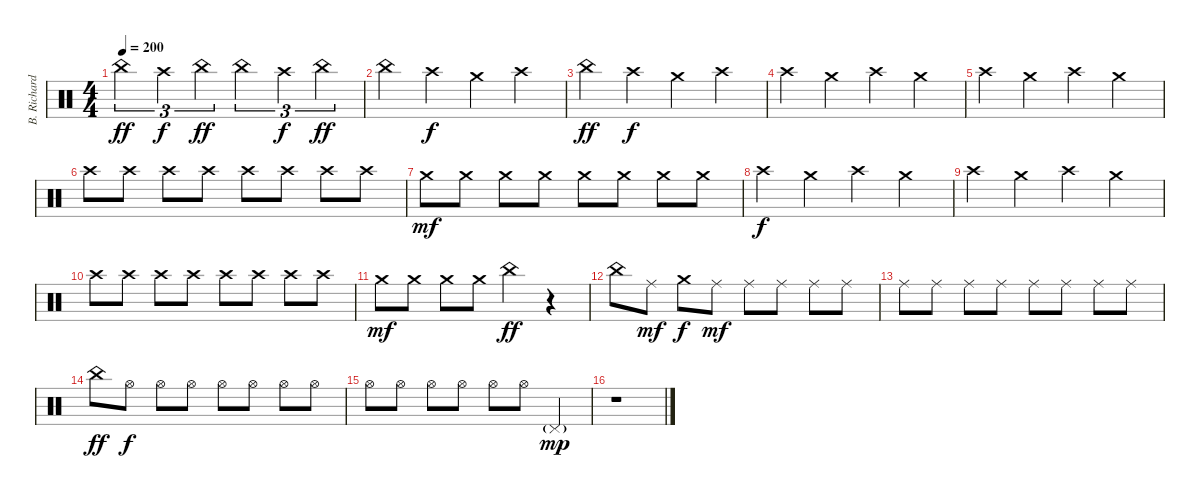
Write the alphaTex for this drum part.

\track ("B. Richardson Drums" "B. Richard") {instrument percussion}
\staff {score}
\articulation defaults
\ts (4 4)
\tempo 200
\clef neutral
\ks c "China (hit)".4{tu (3 2) dy ff} "Crash high (hit)".4{tu (3 2) dy f} "China (hit)".4{tu (3 2) dy ff} "China (hit)".4{tu (3 2)} "Crash high (hit)".4{tu (3 2) dy f} "China (hit)".4{tu (3 2) dy ff}
|
"China (hit)".4 "Crash high (hit)".4{dy f} "Crash medium (hit)".4 "Crash high (hit)".4 |
"China (hit)".4{dy ff} "Crash high (hit)".4{dy f} "Crash medium (hit)".4 "Crash high (hit)".4 |
"Crash high (hit)".4 "Crash medium (hit)".4 "Crash high (hit)".4 "Crash medium (hit)".4 |
"Crash high (hit)".4 "Crash medium (hit)".4 "Crash high (hit)".4 "Crash medium (hit)".4 |
"Crash high (hit)".8 "Crash high (hit)".8 "Crash high (hit)".8 "Crash high (hit)".8 "Crash high (hit)".8 "Crash high (hit)".8 "Crash high (hit)".8 "Crash high (hit)".8 |
"Crash medium (hit)".8{dy mf} "Crash medium (hit)".8 "Crash medium (hit)".8 "Crash medium (hit)".8 "Crash medium (hit)".8 "Crash medium (hit)".8 "Crash medium (hit)".8 "Crash medium (hit)".8 |
"Crash high (hit)".4{dy f} "Crash medium (hit)".4 "Crash high (hit)".4 "Crash medium (hit)".4 |
"Crash high (hit)".4 "Crash medium (hit)".4 "Crash high (hit)".4 "Crash medium (hit)".4 |
"Crash high (hit)".8 "Crash high (hit)".8 "Crash high (hit)".8 "Crash high (hit)".8 "Crash high (hit)".8 "Crash high (hit)".8 "Crash high (hit)".8 "Crash high (hit)".8 |
"Crash medium (hit)".8{dy mf} "Crash medium (hit)".8 "Crash medium (hit)".8 "Crash medium (hit)".8 "China (hit)".4{dy ff} r.4 |
"China (hit)".8 "Ride (middle)".8{dy mf} "Crash medium (hit)".8{dy f} "Ride (middle)".8{dy mf} "Ride (middle)".8 "Ride (middle)".8 "Ride (middle)".8 "Ride (middle)".8 |
"Ride (middle)".8 "Ride (middle)".8 "Ride (middle)".8 "Ride (middle)".8 "Ride (middle)".8 "Ride (middle)".8 "Ride (middle)".8 "Ride (middle)".8 |
"China (hit)".8{dy ff} "Hi-Hat (open)".8{dy f} "Hi-Hat (open)".8 "Hi-Hat (open)".8 "Hi-Hat (open)".8 "Hi-Hat (open)".8 "Hi-Hat (open)".8 "Hi-Hat (open)".8 |
"Hi-Hat (open)".8 "Hi-Hat (open)".8 "Hi-Hat (open)".8 "Hi-Hat (open)".8 "Hi-Hat (open)".8 "Hi-Hat (open)".8 "Pedal Hi-Hat (hit)"{g}.4{dy mp} |
r.1
